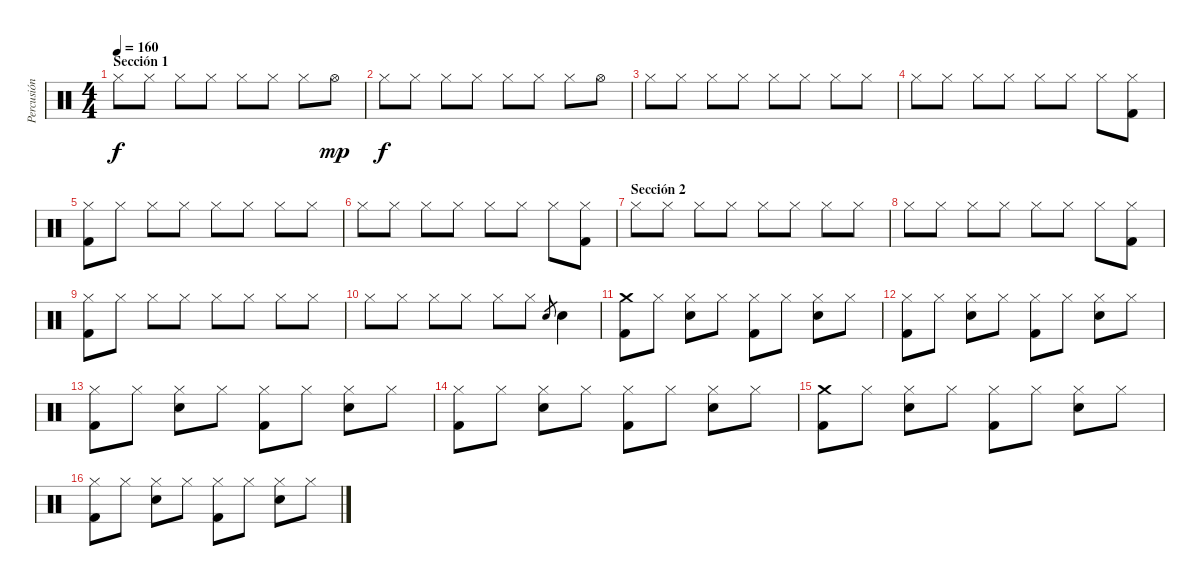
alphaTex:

\track ("Percusión" "Percusión") {instrument percussion}
\staff {score}
\articulation defaults
\ts (4 4)
\section ("" "Sección 1")
\tempo 160
\clef neutral
\ks c "Hi-Hat (closed)".8{dy f} "Hi-Hat (closed)".8 "Hi-Hat (closed)".8 "Hi-Hat (closed)".8 "Hi-Hat (closed)".8 "Hi-Hat (closed)".8 "Hi-Hat (closed)".8 "Hi-Hat (open)".8{dy mp}
|
"Hi-Hat (closed)".8{dy f} "Hi-Hat (closed)".8 "Hi-Hat (closed)".8 "Hi-Hat (closed)".8 "Hi-Hat (closed)".8 "Hi-Hat (closed)".8 "Hi-Hat (closed)".8 "Hi-Hat (open)".8 |
"Hi-Hat (closed)".8 "Hi-Hat (closed)".8 "Hi-Hat (closed)".8 "Hi-Hat (closed)".8 "Hi-Hat (closed)".8 "Hi-Hat (closed)".8 "Hi-Hat (closed)".8 "Hi-Hat (closed)".8 |
"Hi-Hat (closed)".8 "Hi-Hat (closed)".8 "Hi-Hat (closed)".8 "Hi-Hat (closed)".8 "Hi-Hat (closed)".8 "Hi-Hat (closed)".8 "Hi-Hat (closed)".8 ("Hi-Hat (closed)" "Kick (hit) 2").8 |
("Hi-Hat (closed)" "Kick (hit) 2").8 "Hi-Hat (closed)".8 "Hi-Hat (closed)".8 "Hi-Hat (closed)".8 "Hi-Hat (closed)".8 "Hi-Hat (closed)".8 "Hi-Hat (closed)".8 "Hi-Hat (closed)".8 |
"Hi-Hat (closed)".8 "Hi-Hat (closed)".8 "Hi-Hat (closed)".8 "Hi-Hat (closed)".8 "Hi-Hat (closed)".8 "Hi-Hat (closed)".8 "Hi-Hat (closed)".8 ("Hi-Hat (closed)" "Kick (hit) 2").8 |
\section ("" "Sección 2")
"Hi-Hat (closed)".8 "Hi-Hat (closed)".8 "Hi-Hat (closed)".8 "Hi-Hat (closed)".8 "Hi-Hat (closed)".8 "Hi-Hat (closed)".8 "Hi-Hat (closed)".8 "Hi-Hat (closed)".8 |
"Hi-Hat (closed)".8 "Hi-Hat (closed)".8 "Hi-Hat (closed)".8 "Hi-Hat (closed)".8 "Hi-Hat (closed)".8 "Hi-Hat (closed)".8 "Hi-Hat (closed)".8 ("Hi-Hat (closed)" "Kick (hit) 2").8 |
("Hi-Hat (closed)" "Kick (hit) 2").8 "Hi-Hat (closed)".8 "Hi-Hat (closed)".8 "Hi-Hat (closed)".8 "Hi-Hat (closed)".8 "Hi-Hat (closed)".8 "Hi-Hat (closed)".8 "Hi-Hat (closed)".8 |
"Hi-Hat (closed)".8 "Hi-Hat (closed)".8 "Hi-Hat (closed)".8 "Hi-Hat (closed)".8 "Hi-Hat (closed)".8 "Hi-Hat (closed)".8 "Snare (hit) 2".8{gr} "Snare (hit) 2".4 |
("Crash medium (hit)" "Kick (hit) 2").8 "Hi-Hat (closed)".8 ("Hi-Hat (closed)" "Snare (hit) 2").8 "Hi-Hat (closed)".8 ("Hi-Hat (closed)" "Kick (hit) 2").8 "Hi-Hat (closed)".8 ("Hi-Hat (closed)" "Snare (hit) 2").8 "Hi-Hat (closed)".8 |
("Hi-Hat (closed)" "Kick (hit) 2").8 "Hi-Hat (closed)".8 ("Hi-Hat (closed)" "Snare (hit) 2").8 "Hi-Hat (closed)".8 ("Hi-Hat (closed)" "Kick (hit) 2").8 "Hi-Hat (closed)".8 ("Hi-Hat (closed)" "Snare (hit) 2").8 "Hi-Hat (closed)".8 |
("Hi-Hat (closed)" "Kick (hit) 2").8 "Hi-Hat (closed)".8 ("Hi-Hat (closed)" "Snare (hit) 2").8 "Hi-Hat (closed)".8 ("Hi-Hat (closed)" "Kick (hit) 2").8 "Hi-Hat (closed)".8 ("Hi-Hat (closed)" "Snare (hit) 2").8 "Hi-Hat (closed)".8 |
("Hi-Hat (closed)" "Kick (hit) 2").8 "Hi-Hat (closed)".8 ("Hi-Hat (closed)" "Snare (hit) 2").8 "Hi-Hat (closed)".8 ("Hi-Hat (closed)" "Kick (hit) 2").8 "Hi-Hat (closed)".8 ("Hi-Hat (closed)" "Snare (hit) 2").8 "Hi-Hat (closed)".8 |
("Crash medium (hit)" "Kick (hit) 2").8 "Hi-Hat (closed)".8 ("Hi-Hat (closed)" "Snare (hit) 2").8 "Hi-Hat (closed)".8 ("Hi-Hat (closed)" "Kick (hit) 2").8 "Hi-Hat (closed)".8 ("Hi-Hat (closed)" "Snare (hit) 2").8 "Hi-Hat (closed)".8 |
("Hi-Hat (closed)" "Kick (hit) 2").8 "Hi-Hat (closed)".8 ("Hi-Hat (closed)" "Snare (hit) 2").8 "Hi-Hat (closed)".8 ("Hi-Hat (closed)" "Kick (hit) 2").8 "Hi-Hat (closed)".8 ("Hi-Hat (closed)" "Snare (hit) 2").8 "Hi-Hat (closed)".8
